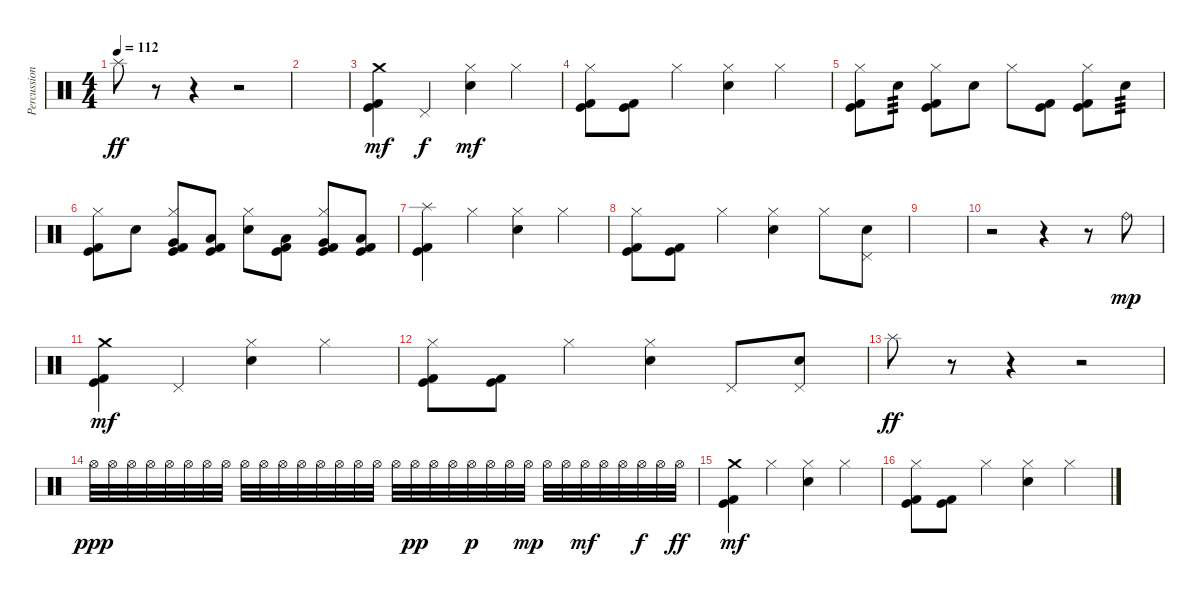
\track ("Percussion" "Percussion") {instrument percussion}
\staff {score}
\articulation defaults
\ts (4 4)
\tempo 112
\clef neutral
\ks c "Splash (hit)".8{dy ff}
r.8 r.4 r.2 |
|
("Crash medium (hit)" "Kick (hit)" "Kick (hit) 2").4{dy mf} "Pedal Hi-Hat (hit)".4{dy f} ("Hi-Hat (closed)" "Electric Snare (hit)").4{dy mf} "Hi-Hat (closed)".4 |
("Hi-Hat (closed)" "Kick (hit)" "Kick (hit) 2").8 ("Kick (hit)" "Kick (hit) 2").8 "Hi-Hat (closed)".4 ("Hi-Hat (closed)" "Electric Snare (hit)").4 "Hi-Hat (closed)".4 |
("Hi-Hat (closed)" "Kick (hit)" "Kick (hit) 2").8 "Electric Snare (hit)".8{tp 3} ("Hi-Hat (closed)" "Kick (hit)" "Kick (hit) 2").8 "Electric Snare (hit)".8 "Hi-Hat (closed)".8 ("Kick (hit)" "Kick (hit) 2").8 ("Hi-Hat (closed)" "Kick (hit)" "Kick (hit) 2").8 "Electric Snare (hit)".8{tp 3} |
("Hi-Hat (closed)" "Kick (hit)" "Kick (hit) 2").8 "Electric Snare (hit)".8 ("Hi-Hat (closed)" "Very Low Tom (hit)" "Kick (hit)" "Kick (hit) 2").8 ("Low Tom (hit)" "Kick (hit)" "Kick (hit) 2").8 ("Hi-Hat (closed)" "Electric Snare (hit)").8 ("Low Tom (hit)" "Kick (hit)" "Kick (hit) 2").8 ("Hi-Hat (closed)" "Very Low Tom (hit)" "Kick (hit)" "Kick (hit) 2").8 ("Low Floor Tom (hit)" "Kick (hit)" "Kick (hit) 2").8 |
("Splash (hit)" "Kick (hit)" "Kick (hit) 2").4 "Hi-Hat (closed)".4 ("Hi-Hat (closed)" "Electric Snare (hit)").4 "Hi-Hat (closed)".4 |
("Hi-Hat (closed)" "Kick (hit)" "Kick (hit) 2").8 ("Kick (hit)" "Kick (hit) 2").8 "Hi-Hat (closed)".4 ("Hi-Hat (closed)" "Electric Snare (hit)").4 "Hi-Hat (closed)".8 ("Pedal Hi-Hat (hit)" "Electric Snare (hit)").8 |
|
r.2 r.4 r.8 "Ride (bell)".8{dy mp} |
("Crash medium (hit)" "Kick (hit)" "Kick (hit) 2").4{dy mf} "Pedal Hi-Hat (hit)".4 ("Hi-Hat (closed)" "Electric Snare (hit)").4 "Hi-Hat (closed)".4 |
("Hi-Hat (closed)" "Kick (hit)" "Kick (hit) 2").8 ("Kick (hit)" "Kick (hit) 2").8 "Hi-Hat (closed)".4 ("Hi-Hat (closed)" "Electric Snare (hit)").4 "Pedal Hi-Hat (hit)".8 ("Pedal Hi-Hat (hit)" "Electric Snare (hit)").8 |
"Splash (hit)".8{dy ff} r.8 r.4 r.2 |
"Hi-Hat (open)".32{dy ppp} "Hi-Hat (open)".32 "Hi-Hat (open)".32 "Hi-Hat (open)".32 "Hi-Hat (open)".32 "Hi-Hat (open)".32 "Hi-Hat (open)".32 "Hi-Hat (open)".32 "Hi-Hat (open)".32 "Hi-Hat (open)".32 "Hi-Hat (open)".32 "Hi-Hat (open)".32 "Hi-Hat (open)".32 "Hi-Hat (open)".32 "Hi-Hat (open)".32 "Hi-Hat (open)".32 "Hi-Hat (open)".32 "Hi-Hat (open)".32{dy pp} "Hi-Hat (open)".32 "Hi-Hat (open)".32 "Hi-Hat (open)".32{dy p} "Hi-Hat (open)".32 "Hi-Hat (open)".32 "Hi-Hat (open)".32{dy mp} "Hi-Hat (open)".32 "Hi-Hat (open)".32 "Hi-Hat (open)".32{dy mf} "Hi-Hat (open)".32 "Hi-Hat (open)".32 "Hi-Hat (open)".32{dy f} "Hi-Hat (open)".32 "Hi-Hat (open)".32{dy ff} |
("Crash medium (hit)" "Kick (hit)" "Kick (hit) 2").4{dy mf} "Hi-Hat (closed)".4 ("Hi-Hat (closed)" "Electric Snare (hit)").4 "Hi-Hat (closed)".4 |
("Hi-Hat (closed)" "Kick (hit)" "Kick (hit) 2").8 ("Kick (hit)" "Kick (hit) 2").8 "Hi-Hat (closed)".4 ("Hi-Hat (closed)" "Electric Snare (hit)").4 "Hi-Hat (closed)".4
